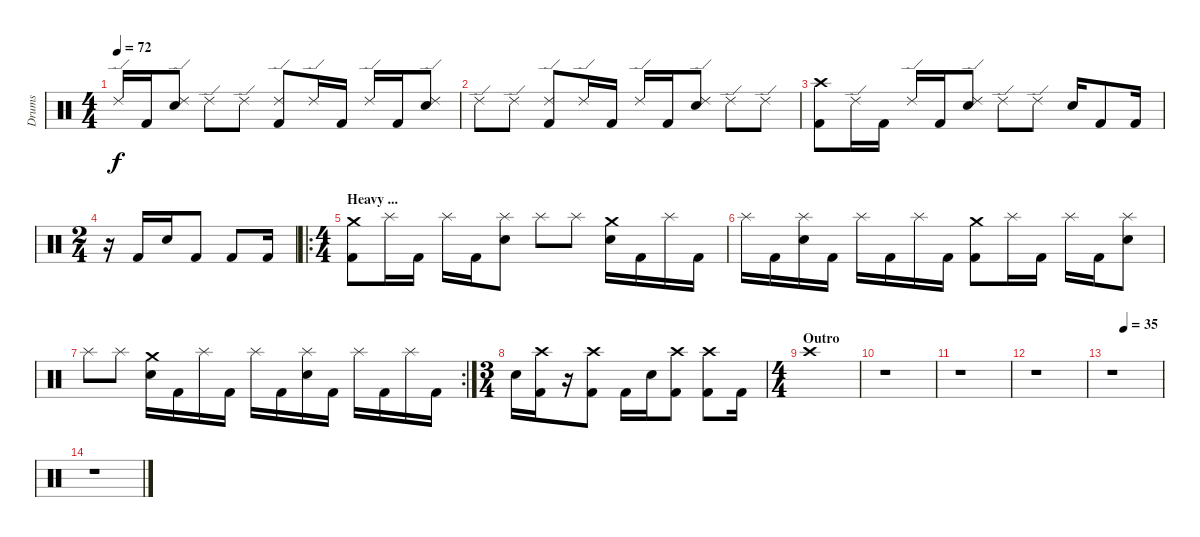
\track ("Drums" "Drums") {instrument percussion}
\staff {score}
\articulation defaults
\ts (4 4)
\tempo 72
\clef neutral
\ks c "Ride (edge) 2".16{dy f} "Kick (hit) 2".16
("Ride (edge) 2" "Electric Snare (hit)").8 "Ride (edge) 2".8 "Ride (edge) 2".8 ("Ride (edge) 2" "Kick (hit) 2").8 "Ride (edge) 2".16 "Kick (hit) 2".16 "Ride (edge) 2".16 "Kick (hit) 2".16 ("Ride (edge) 2" "Electric Snare (hit)").8 |
"Ride (edge) 2".8 "Ride (edge) 2".8 ("Ride (edge) 2" "Kick (hit) 2").8 "Ride (edge) 2".16 "Kick (hit) 2".16 "Ride (edge) 2".16 "Kick (hit) 2".16 ("Ride (edge) 2" "Electric Snare (hit)").8 "Ride (edge) 2".8 "Ride (edge) 2".8 |
("Crash high (hit)" "Kick (hit) 2").8 "Ride (edge) 2".16 "Kick (hit) 2".16 "Ride (edge) 2".16 "Kick (hit) 2".16 ("Ride (edge) 2" "Electric Snare (hit)").8 "Ride (edge) 2".8 "Ride (edge) 2".8 "Electric Snare (hit)".16 "Kick (hit) 2".8 "Kick (hit) 2".16 |
\ts (2 4)
r.16 "Kick (hit) 2".16 "Electric Snare (hit)".16 "Kick (hit) 2".8 "Kick (hit) 2".8 "Kick (hit) 2".16 |
\ro
\ts (4 4)
\section ("" "Heavy ...")
("Crash medium (hit)" "Kick (hit) 2").8 "Splash (hit)".16 "Kick (hit) 2".16 "Splash (hit)".16 "Kick (hit) 2".16 ("Splash (hit)" "Electric Snare (hit)").8 "Splash (hit)".8 "Splash (hit)".8 ("Crash medium (hit)" "Electric Snare (hit)").16 "Kick (hit) 2".16 "Splash (hit)".16 "Kick (hit) 2".16 |
"Splash (hit)".16 "Kick (hit) 2".16 ("Splash (hit)" "Electric Snare (hit)").16 "Kick (hit) 2".16 "Splash (hit)".16 "Kick (hit) 2".16 "Splash (hit)".16 "Kick (hit) 2".16 ("Crash medium (hit)" "Kick (hit) 2").8 "Splash (hit)".16 "Kick (hit) 2".16 "Splash (hit)".16 "Kick (hit) 2".16 ("Splash (hit)" "Electric Snare (hit)").8 |
\rc 2 "Splash (hit)".8 "Splash (hit)".8
("Crash medium (hit)" "Electric Snare (hit)").16 "Kick (hit) 2".16 "Splash (hit)".16 "Kick (hit) 2".16 "Splash (hit)".16 "Kick (hit) 2".16 ("Splash (hit)" "Electric Snare (hit)").16 "Kick (hit) 2".16 "Splash (hit)".16 "Kick (hit) 2".16 "Splash (hit)".16 "Kick (hit) 2".16 |
\ts (3 4)
"Electric Snare (hit)".16 ("Crash high (hit)" "Kick (hit) 2").16 r.16 ("Crash high (hit)" "Kick (hit) 2").8 "Kick (hit) 2".16 "Electric Snare (hit)".16 ("Crash high (hit)" "Kick (hit) 2").8 ("Crash high (hit)" "Kick (hit) 2").8 "Kick (hit) 2".16 |
\ts (4 4)
\section ("" "Outro")
"Crash high (hit)".1 |
r.1 |
r.1 |
r.1 |
\tempo (35 0.25)
r.1 |
r.1
